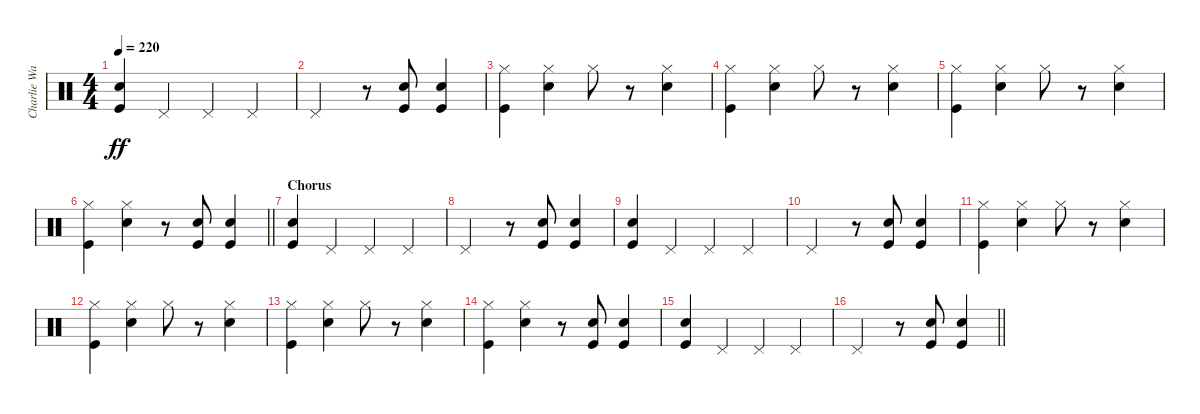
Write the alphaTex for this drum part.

\track ("Charlie Watts" "Charlie Wa") {instrument percussion}
\staff {score}
\articulation defaults
\ts (4 4)
\tempo 220
\clef neutral
\ks c
("Snare (hit) 2" "Kick (hit)").4{dy ff} "Pedal Hi-Hat (hit)".4 "Pedal Hi-Hat (hit)".4 "Pedal Hi-Hat (hit)".4 |
"Pedal Hi-Hat (hit)".2 r.8 ("Snare (hit) 2" "Kick (hit)").8 ("Snare (hit) 2" "Kick (hit)").4 |
("Hi-Hat (closed)" "Kick (hit)").4 ("Hi-Hat (closed)" "Snare (hit) 2").4 "Hi-Hat (closed)".8 r.8 ("Hi-Hat (closed)" "Snare (hit) 2").4 |
("Hi-Hat (closed)" "Kick (hit)").4 ("Hi-Hat (closed)" "Snare (hit) 2").4 "Hi-Hat (closed)".8 r.8 ("Hi-Hat (closed)" "Snare (hit) 2").4 |
("Hi-Hat (closed)" "Kick (hit)").4 ("Hi-Hat (closed)" "Snare (hit) 2").4 "Hi-Hat (closed)".8 r.8 ("Hi-Hat (closed)" "Snare (hit) 2").4 |
\barLineRight lightlight
("Hi-Hat (closed)" "Kick (hit)").4 ("Hi-Hat (closed)" "Snare (hit) 2").4 r.8 ("Snare (hit) 2" "Kick (hit)").8 ("Snare (hit) 2" "Kick (hit)").4 |
\section ("" "Chorus")
("Snare (hit) 2" "Kick (hit)").4 "Pedal Hi-Hat (hit)".4 "Pedal Hi-Hat (hit)".4 "Pedal Hi-Hat (hit)".4 |
"Pedal Hi-Hat (hit)".2 r.8 ("Snare (hit) 2" "Kick (hit)").8 ("Snare (hit) 2" "Kick (hit)").4 |
("Snare (hit) 2" "Kick (hit)").4 "Pedal Hi-Hat (hit)".4 "Pedal Hi-Hat (hit)".4 "Pedal Hi-Hat (hit)".4 |
"Pedal Hi-Hat (hit)".2 r.8 ("Snare (hit) 2" "Kick (hit)").8 ("Snare (hit) 2" "Kick (hit)").4 |
("Hi-Hat (closed)" "Kick (hit)").4 ("Hi-Hat (closed)" "Snare (hit) 2").4 "Hi-Hat (closed)".8 r.8 ("Hi-Hat (closed)" "Snare (hit) 2").4 |
("Hi-Hat (closed)" "Kick (hit)").4 ("Hi-Hat (closed)" "Snare (hit) 2").4 "Hi-Hat (closed)".8 r.8 ("Hi-Hat (closed)" "Snare (hit) 2").4 |
("Hi-Hat (closed)" "Kick (hit)").4 ("Hi-Hat (closed)" "Snare (hit) 2").4 "Hi-Hat (closed)".8 r.8 ("Hi-Hat (closed)" "Snare (hit) 2").4 |
("Hi-Hat (closed)" "Kick (hit)").4 ("Hi-Hat (closed)" "Snare (hit) 2").4 r.8 ("Snare (hit) 2" "Kick (hit)").8 ("Snare (hit) 2" "Kick (hit)").4 |
("Snare (hit) 2" "Kick (hit)").4 "Pedal Hi-Hat (hit)".4 "Pedal Hi-Hat (hit)".4 "Pedal Hi-Hat (hit)".4 |
\barLineRight lightlight "Pedal Hi-Hat (hit)".2
r.8 ("Snare (hit) 2" "Kick (hit)").8 ("Snare (hit) 2" "Kick (hit)").4
